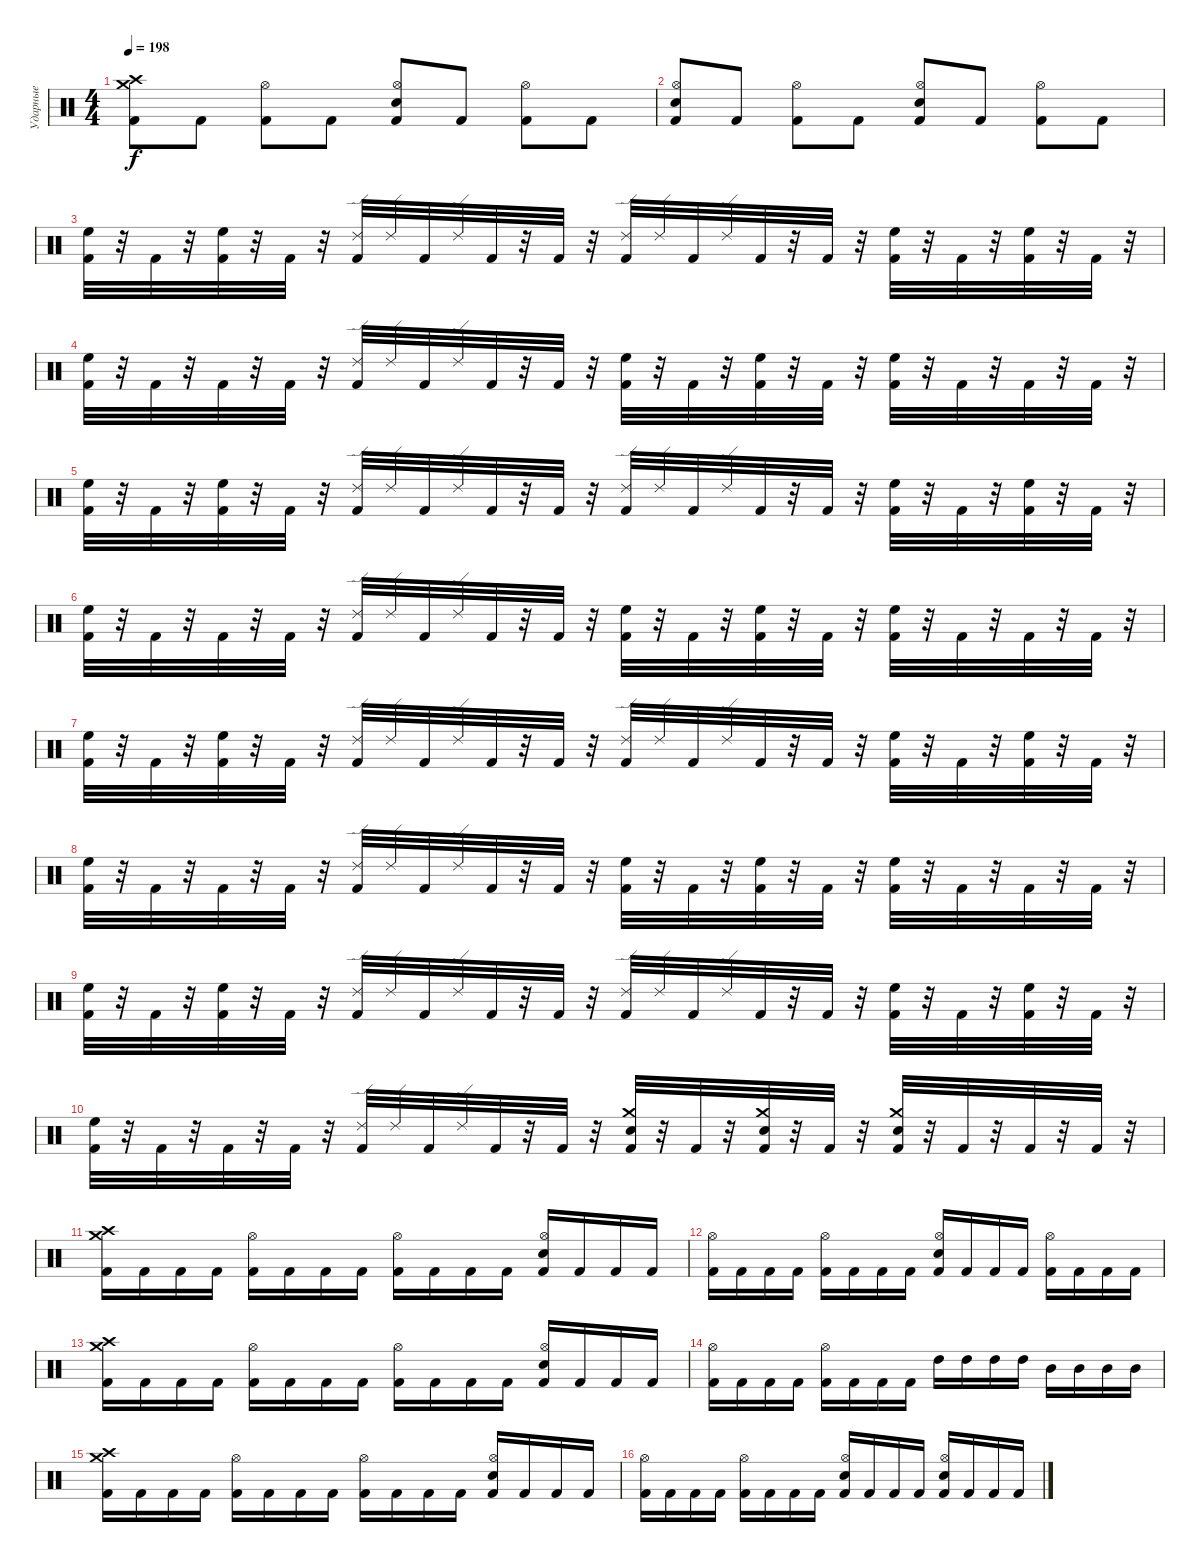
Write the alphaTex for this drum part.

\track ("Ударные" "Ударные") {instrument percussion}
\staff {score}
\articulation defaults
\ts (4 4)
\tempo 198
\clef neutral
\ks c
("Kick (hit) 2" "Crash medium (hit)" "Crash high (hit)").8{dy f} "Kick (hit) 2".8 ("Kick (hit) 2" "Hi-Hat (open)").8 "Kick (hit) 2".8 ("Kick (hit) 2" "Hi-Hat (open)" "Electric Snare (hit)").8 "Kick (hit) 2".8 ("Kick (hit) 2" "Hi-Hat (open)").8 "Kick (hit) 2".8 |
("Kick (hit) 2" "Hi-Hat (open)" "Electric Snare (hit)").8 "Kick (hit) 2".8 ("Kick (hit) 2" "Hi-Hat (open)").8 "Kick (hit) 2".8 ("Kick (hit) 2" "Hi-Hat (open)" "Electric Snare (hit)").8 "Kick (hit) 2".8 ("Kick (hit) 2" "Hi-Hat (open)").8 "Kick (hit) 2".8 |
("Kick (hit) 2" "High Floor Tom (hit)").32 r.32 "Kick (hit) 2".32 r.32 ("Kick (hit) 2" "High Floor Tom (hit)").32 r.32 "Kick (hit) 2".32 r.32 ("Kick (hit) 2" "Ride (edge) 2").32 "Ride (edge) 2".32 "Kick (hit) 2".32 "Ride (edge) 2".32 "Kick (hit) 2".32 r.32 "Kick (hit) 2".32 r.32 ("Kick (hit) 2" "Ride (edge) 2").32 "Ride (edge) 2".32 "Kick (hit) 2".32 "Ride (edge) 2".32 "Kick (hit) 2".32 r.32 "Kick (hit) 2".32 r.32 ("Kick (hit) 2" "High Floor Tom (hit)").32 r.32 "Kick (hit) 2".32 r.32 ("Kick (hit) 2" "High Floor Tom (hit)").32 r.32 "Kick (hit) 2".32 r.32 |
("Kick (hit) 2" "High Floor Tom (hit)").32 r.32 "Kick (hit) 2".32 r.32 "Kick (hit) 2".32 r.32 "Kick (hit) 2".32 r.32 ("Kick (hit) 2" "Ride (edge) 2").32 "Ride (edge) 2".32 "Kick (hit) 2".32 "Ride (edge) 2".32 "Kick (hit) 2".32 r.32 "Kick (hit) 2".32 r.32 ("Kick (hit) 2" "High Floor Tom (hit)").32 r.32 "Kick (hit) 2".32 r.32 ("Kick (hit) 2" "High Floor Tom (hit)").32 r.32 "Kick (hit) 2".32 r.32 ("Kick (hit) 2" "High Floor Tom (hit)").32 r.32 "Kick (hit) 2".32 r.32 "Kick (hit) 2".32 r.32 "Kick (hit) 2".32 r.32 |
("Kick (hit) 2" "High Floor Tom (hit)").32 r.32 "Kick (hit) 2".32 r.32 ("Kick (hit) 2" "High Floor Tom (hit)").32 r.32 "Kick (hit) 2".32 r.32 ("Kick (hit) 2" "Ride (edge) 2").32 "Ride (edge) 2".32 "Kick (hit) 2".32 "Ride (edge) 2".32 "Kick (hit) 2".32 r.32 "Kick (hit) 2".32 r.32 ("Kick (hit) 2" "Ride (edge) 2").32 "Ride (edge) 2".32 "Kick (hit) 2".32 "Ride (edge) 2".32 "Kick (hit) 2".32 r.32 "Kick (hit) 2".32 r.32 ("Kick (hit) 2" "High Floor Tom (hit)").32 r.32 "Kick (hit) 2".32 r.32 ("Kick (hit) 2" "High Floor Tom (hit)").32 r.32 "Kick (hit) 2".32 r.32 |
("Kick (hit) 2" "High Floor Tom (hit)").32 r.32 "Kick (hit) 2".32 r.32 "Kick (hit) 2".32 r.32 "Kick (hit) 2".32 r.32 ("Kick (hit) 2" "Ride (edge) 2").32 "Ride (edge) 2".32 "Kick (hit) 2".32 "Ride (edge) 2".32 "Kick (hit) 2".32 r.32 "Kick (hit) 2".32 r.32 ("Kick (hit) 2" "High Floor Tom (hit)").32 r.32 "Kick (hit) 2".32 r.32 ("Kick (hit) 2" "High Floor Tom (hit)").32 r.32 "Kick (hit) 2".32 r.32 ("Kick (hit) 2" "High Floor Tom (hit)").32 r.32 "Kick (hit) 2".32 r.32 "Kick (hit) 2".32 r.32 "Kick (hit) 2".32 r.32 |
("Kick (hit) 2" "High Floor Tom (hit)").32 r.32 "Kick (hit) 2".32 r.32 ("Kick (hit) 2" "High Floor Tom (hit)").32 r.32 "Kick (hit) 2".32 r.32 ("Kick (hit) 2" "Ride (edge) 2").32 "Ride (edge) 2".32 "Kick (hit) 2".32 "Ride (edge) 2".32 "Kick (hit) 2".32 r.32 "Kick (hit) 2".32 r.32 ("Kick (hit) 2" "Ride (edge) 2").32 "Ride (edge) 2".32 "Kick (hit) 2".32 "Ride (edge) 2".32 "Kick (hit) 2".32 r.32 "Kick (hit) 2".32 r.32 ("Kick (hit) 2" "High Floor Tom (hit)").32 r.32 "Kick (hit) 2".32 r.32 ("Kick (hit) 2" "High Floor Tom (hit)").32 r.32 "Kick (hit) 2".32 r.32 |
("Kick (hit) 2" "High Floor Tom (hit)").32 r.32 "Kick (hit) 2".32 r.32 "Kick (hit) 2".32 r.32 "Kick (hit) 2".32 r.32 ("Kick (hit) 2" "Ride (edge) 2").32 "Ride (edge) 2".32 "Kick (hit) 2".32 "Ride (edge) 2".32 "Kick (hit) 2".32 r.32 "Kick (hit) 2".32 r.32 ("Kick (hit) 2" "High Floor Tom (hit)").32 r.32 "Kick (hit) 2".32 r.32 ("Kick (hit) 2" "High Floor Tom (hit)").32 r.32 "Kick (hit) 2".32 r.32 ("Kick (hit) 2" "High Floor Tom (hit)").32 r.32 "Kick (hit) 2".32 r.32 "Kick (hit) 2".32 r.32 "Kick (hit) 2".32 r.32 |
("Kick (hit) 2" "High Floor Tom (hit)").32 r.32 "Kick (hit) 2".32 r.32 ("Kick (hit) 2" "High Floor Tom (hit)").32 r.32 "Kick (hit) 2".32 r.32 ("Kick (hit) 2" "Ride (edge) 2").32 "Ride (edge) 2".32 "Kick (hit) 2".32 "Ride (edge) 2".32 "Kick (hit) 2".32 r.32 "Kick (hit) 2".32 r.32 ("Kick (hit) 2" "Ride (edge) 2").32 "Ride (edge) 2".32 "Kick (hit) 2".32 "Ride (edge) 2".32 "Kick (hit) 2".32 r.32 "Kick (hit) 2".32 r.32 ("Kick (hit) 2" "High Floor Tom (hit)").32 r.32 "Kick (hit) 2".32 r.32 ("Kick (hit) 2" "High Floor Tom (hit)").32 r.32 "Kick (hit) 2".32 r.32 |
("Kick (hit) 2" "High Floor Tom (hit)").32 r.32 "Kick (hit) 2".32 r.32 "Kick (hit) 2".32 r.32 "Kick (hit) 2".32 r.32 ("Kick (hit) 2" "Ride (edge) 2").32 "Ride (edge) 2".32 "Kick (hit) 2".32 "Ride (edge) 2".32 "Kick (hit) 2".32 r.32 "Kick (hit) 2".32 r.32 ("Kick (hit) 2" "Electric Snare (hit)" "Crash medium (hit)").32 r.32 "Kick (hit) 2".32 r.32 ("Kick (hit) 2" "Electric Snare (hit)" "Crash medium (hit)").32 r.32 "Kick (hit) 2".32 r.32 ("Kick (hit) 2" "Electric Snare (hit)" "Crash medium (hit)").32 r.32 "Kick (hit) 2".32 r.32 "Kick (hit) 2".32 r.32 "Kick (hit) 2".32 r.32 |
("Kick (hit) 2" "Crash medium (hit)" "Crash high (hit)").16 "Kick (hit) 2".16 "Kick (hit) 2".16 "Kick (hit) 2".16 ("Kick (hit) 2" "Hi-Hat (open)").16 "Kick (hit) 2".16 "Kick (hit) 2".16 "Kick (hit) 2".16 ("Kick (hit) 2" "Hi-Hat (open)").16 "Kick (hit) 2".16 "Kick (hit) 2".16 "Kick (hit) 2".16 ("Kick (hit) 2" "Hi-Hat (open)" "Electric Snare (hit)").16 "Kick (hit) 2".16 "Kick (hit) 2".16 "Kick (hit) 2".16 |
("Kick (hit) 2" "Hi-Hat (open)").16 "Kick (hit) 2".16 "Kick (hit) 2".16 "Kick (hit) 2".16 ("Kick (hit) 2" "Hi-Hat (open)").16 "Kick (hit) 2".16 "Kick (hit) 2".16 "Kick (hit) 2".16 ("Kick (hit) 2" "Hi-Hat (open)" "Electric Snare (hit)").16 "Kick (hit) 2".16 "Kick (hit) 2".16 "Kick (hit) 2".16 ("Kick (hit) 2" "Hi-Hat (open)").16 "Kick (hit) 2".16 "Kick (hit) 2".16 "Kick (hit) 2".16 |
("Kick (hit) 2" "Crash medium (hit)" "Crash high (hit)").16 "Kick (hit) 2".16 "Kick (hit) 2".16 "Kick (hit) 2".16 ("Kick (hit) 2" "Hi-Hat (open)").16 "Kick (hit) 2".16 "Kick (hit) 2".16 "Kick (hit) 2".16 ("Kick (hit) 2" "Hi-Hat (open)").16 "Kick (hit) 2".16 "Kick (hit) 2".16 "Kick (hit) 2".16 ("Kick (hit) 2" "Hi-Hat (open)" "Electric Snare (hit)").16 "Kick (hit) 2".16 "Kick (hit) 2".16 "Kick (hit) 2".16 |
("Kick (hit) 2" "Hi-Hat (open)").16 "Kick (hit) 2".16 "Kick (hit) 2".16 "Kick (hit) 2".16 ("Kick (hit) 2" "Hi-Hat (open)").16 "Kick (hit) 2".16 "Kick (hit) 2".16 "Kick (hit) 2".16 "High Tom (hit)".16 "High Tom (hit)".16 "High Tom (hit)".16 "High Tom (hit)".16 "Mid Tom (hit)".16 "Mid Tom (hit)".16 "Mid Tom (hit)".16 "Mid Tom (hit)".16 |
("Kick (hit) 2" "Crash medium (hit)" "Crash high (hit)").16 "Kick (hit) 2".16 "Kick (hit) 2".16 "Kick (hit) 2".16 ("Kick (hit) 2" "Hi-Hat (open)").16 "Kick (hit) 2".16 "Kick (hit) 2".16 "Kick (hit) 2".16 ("Kick (hit) 2" "Hi-Hat (open)").16 "Kick (hit) 2".16 "Kick (hit) 2".16 "Kick (hit) 2".16 ("Kick (hit) 2" "Hi-Hat (open)" "Electric Snare (hit)").16 "Kick (hit) 2".16 "Kick (hit) 2".16 "Kick (hit) 2".16 |
("Kick (hit) 2" "Hi-Hat (open)").16 "Kick (hit) 2".16 "Kick (hit) 2".16 "Kick (hit) 2".16 ("Kick (hit) 2" "Hi-Hat (open)").16 "Kick (hit) 2".16 "Kick (hit) 2".16 "Kick (hit) 2".16 ("Kick (hit) 2" "Hi-Hat (open)" "Electric Snare (hit)").16 "Kick (hit) 2".16 "Kick (hit) 2".16 "Kick (hit) 2".16 ("Kick (hit) 2" "Hi-Hat (open)" "Electric Snare (hit)").16 "Kick (hit) 2".16 "Kick (hit) 2".16 "Kick (hit) 2".16
